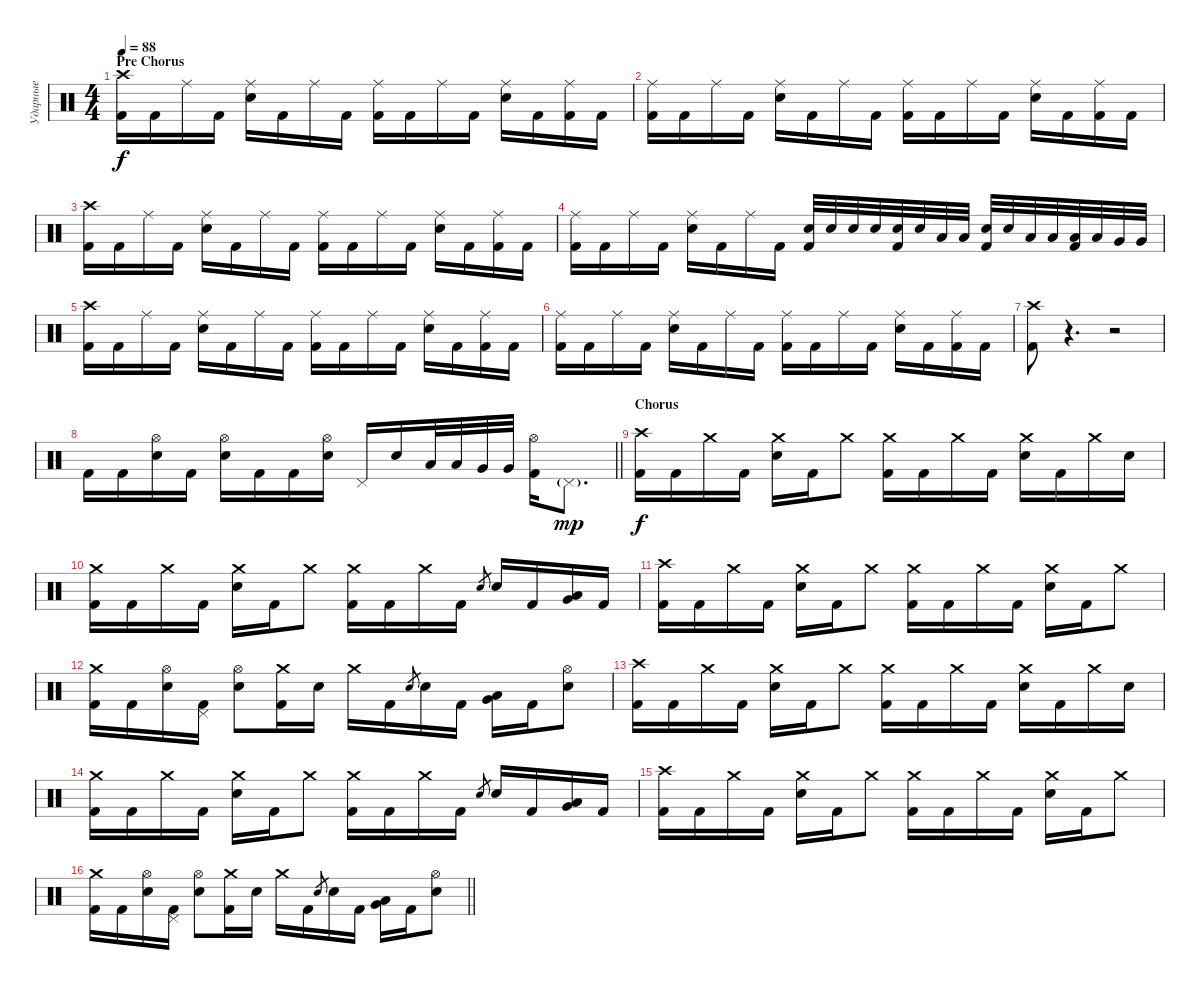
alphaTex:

\track ("Ударные" "Ударные") {instrument percussion}
\staff {score}
\articulation defaults
\ts (4 4)
\section ("" "Pre Chorus")
\tempo 88
\clef neutral
\ks c
("Crash high (hit)" "Kick (hit) 2").16{dy f} "Kick (hit) 2".16 "Ride (middle)".16 "Kick (hit) 2".16 ("Ride (middle)" "Electric Snare (hit)").16 "Kick (hit) 2".16 "Ride (middle)".16 "Kick (hit) 2".16 ("Ride (middle)" "Kick (hit) 2").16 "Kick (hit) 2".16 "Ride (middle)".16 "Kick (hit) 2".16 ("Ride (middle)" "Electric Snare (hit)").16 "Kick (hit) 2".16 ("Ride (middle)" "Kick (hit) 2").16 "Kick (hit) 2".16 |
("Ride (middle)" "Kick (hit) 2").16 "Kick (hit) 2".16 "Ride (middle)".16 "Kick (hit) 2".16 ("Ride (middle)" "Electric Snare (hit)").16 "Kick (hit) 2".16 "Ride (middle)".16 "Kick (hit) 2".16 ("Ride (middle)" "Kick (hit) 2").16 "Kick (hit) 2".16 "Ride (middle)".16 "Kick (hit) 2".16 ("Ride (middle)" "Electric Snare (hit)").16 "Kick (hit) 2".16 ("Ride (middle)" "Kick (hit) 2").16 "Kick (hit) 2".16 |
("Crash high (hit)" "Kick (hit) 2").16 "Kick (hit) 2".16 "Ride (middle)".16 "Kick (hit) 2".16 ("Ride (middle)" "Electric Snare (hit)").16 "Kick (hit) 2".16 "Ride (middle)".16 "Kick (hit) 2".16 ("Ride (middle)" "Kick (hit) 2").16 "Kick (hit) 2".16 "Ride (middle)".16 "Kick (hit) 2".16 ("Ride (middle)" "Electric Snare (hit)").16 "Kick (hit) 2".16 ("Ride (middle)" "Kick (hit) 2").16 "Kick (hit) 2".16 |
("Ride (middle)" "Kick (hit) 2").16 "Kick (hit) 2".16 "Ride (middle)".16 "Kick (hit) 2".16 ("Ride (middle)" "Electric Snare (hit)").16 "Kick (hit) 2".16 "Ride (middle)".16 "Kick (hit) 2".16 ("Electric Snare (hit)" "Kick (hit) 2").32 "Electric Snare (hit)".32 "Electric Snare (hit)".32 "Electric Snare (hit)".32 ("Electric Snare (hit)" "Kick (hit) 2").32 "Electric Snare (hit)".32 "Low Tom (hit)".32 "Low Tom (hit)".32 ("Electric Snare (hit)" "Kick (hit) 2").32 "Electric Snare (hit)".32 "Low Tom (hit)".32 "Low Tom (hit)".32 ("Low Tom (hit)" "Kick (hit) 2").32 "Low Tom (hit)".32 "Very Low Tom (hit)".32 "Very Low Tom (hit)".32 |
("Crash high (hit)" "Kick (hit) 2").16 "Kick (hit) 2".16 "Ride (middle)".16 "Kick (hit) 2".16 ("Ride (middle)" "Electric Snare (hit)").16 "Kick (hit) 2".16 "Ride (middle)".16 "Kick (hit) 2".16 ("Ride (middle)" "Kick (hit) 2").16 "Kick (hit) 2".16 "Ride (middle)".16 "Kick (hit) 2".16 ("Ride (middle)" "Electric Snare (hit)").16 "Kick (hit) 2".16 ("Ride (middle)" "Kick (hit) 2").16 "Kick (hit) 2".16 |
("Ride (middle)" "Kick (hit) 2").16 "Kick (hit) 2".16 "Ride (middle)".16 "Kick (hit) 2".16 ("Ride (middle)" "Electric Snare (hit)").16 "Kick (hit) 2".16 "Ride (middle)".16 "Kick (hit) 2".16 ("Ride (middle)" "Kick (hit) 2").16 "Kick (hit) 2".16 "Ride (middle)".16 "Kick (hit) 2".16 ("Ride (middle)" "Electric Snare (hit)").16 "Kick (hit) 2".16 ("Ride (middle)" "Kick (hit) 2").16 "Kick (hit) 2".16 |
("Crash high (hit)" "Kick (hit) 2").8 r.4{d volume 0} r.2 |
\barLineRight lightlight "Kick (hit) 2".16{volume 16} "Kick (hit) 2".16
("Hi-Hat (open)" "Electric Snare (hit)").16 "Kick (hit) 2".16 ("Hi-Hat (open)" "Electric Snare (hit)").16 "Kick (hit) 2".16 "Kick (hit) 2".16 ("Hi-Hat (open)" "Electric Snare (hit)").16 "Pedal Hi-Hat (hit)".16 "Electric Snare (hit)".16 "Low Tom (hit)".32 "Low Tom (hit)".32 "Very Low Tom (hit)".32 "Very Low Tom (hit)".32 ("Hi-Hat (open)" "Kick (hit) 2").16 "Pedal Hi-Hat (hit)"{g}.8{d dy mp} |
\section ("" "Chorus")
("Crash high (hit)" "Kick (hit) 2").16{dy f} "Kick (hit) 2".16 "Crash medium (hit)".16 "Kick (hit) 2".16 ("Crash medium (hit)" "Electric Snare (hit)").16 "Kick (hit) 2".16 "Crash medium (hit)".8 ("Crash medium (hit)" "Kick (hit) 2").16 "Kick (hit) 2".16 "Crash medium (hit)".16 "Kick (hit) 2".16 ("Crash medium (hit)" "Electric Snare (hit)").16 "Kick (hit) 2".16 "Crash medium (hit)".16 "Electric Snare (hit)".16 |
("Crash medium (hit)" "Kick (hit) 2").16 "Kick (hit) 2".16 "Crash medium (hit)".16 "Kick (hit) 2".16 ("Crash medium (hit)" "Electric Snare (hit)").16 "Kick (hit) 2".16 "Crash medium (hit)".8 ("Crash medium (hit)" "Kick (hit) 2").16 "Kick (hit) 2".16 "Crash medium (hit)".16 "Kick (hit) 2".16 "Electric Snare (hit)".8{gr} "Electric Snare (hit)".16 "Kick (hit) 2".16 ("Low Tom (hit)" "Very Low Tom (hit)").16 "Kick (hit) 2".16 |
("Crash high (hit)" "Kick (hit) 2").16 "Kick (hit) 2".16 "Crash medium (hit)".16 "Kick (hit) 2".16 ("Crash medium (hit)" "Electric Snare (hit)").16 "Kick (hit) 2".16 "Crash medium (hit)".8 ("Crash medium (hit)" "Kick (hit) 2").16 "Kick (hit) 2".16 "Crash medium (hit)".16 "Kick (hit) 2".16 ("Crash medium (hit)" "Electric Snare (hit)").16 "Kick (hit) 2".16 "Crash medium (hit)".8 |
("Crash medium (hit)" "Kick (hit) 2").16 "Kick (hit) 2".16 ("Hi-Hat (open)" "Electric Snare (hit)").16 ("Pedal Hi-Hat (hit)" "Kick (hit) 2").16 ("Hi-Hat (open)" "Electric Snare (hit)").8 ("Crash medium (hit)" "Kick (hit) 2").16 "Electric Snare (hit)".16 "Crash medium (hit)".16 "Kick (hit) 2".16 "Electric Snare (hit)".8{gr} "Electric Snare (hit)".16 "Kick (hit) 2".16 ("Low Tom (hit)" "Very Low Tom (hit)").16 "Kick (hit) 2".16 ("Hi-Hat (open)" "Electric Snare (hit)").8 |
("Crash high (hit)" "Kick (hit) 2").16 "Kick (hit) 2".16 "Crash medium (hit)".16 "Kick (hit) 2".16 ("Crash medium (hit)" "Electric Snare (hit)").16 "Kick (hit) 2".16 "Crash medium (hit)".8 ("Crash medium (hit)" "Kick (hit) 2").16 "Kick (hit) 2".16 "Crash medium (hit)".16 "Kick (hit) 2".16 ("Crash medium (hit)" "Electric Snare (hit)").16 "Kick (hit) 2".16 "Crash medium (hit)".16 "Electric Snare (hit)".16 |
("Crash medium (hit)" "Kick (hit) 2").16 "Kick (hit) 2".16 "Crash medium (hit)".16 "Kick (hit) 2".16 ("Crash medium (hit)" "Electric Snare (hit)").16 "Kick (hit) 2".16 "Crash medium (hit)".8 ("Crash medium (hit)" "Kick (hit) 2").16 "Kick (hit) 2".16 "Crash medium (hit)".16 "Kick (hit) 2".16 "Electric Snare (hit)".8{gr} "Electric Snare (hit)".16 "Kick (hit) 2".16 ("Low Tom (hit)" "Very Low Tom (hit)").16 "Kick (hit) 2".16 |
("Crash high (hit)" "Kick (hit) 2").16 "Kick (hit) 2".16 "Crash medium (hit)".16 "Kick (hit) 2".16 ("Crash medium (hit)" "Electric Snare (hit)").16 "Kick (hit) 2".16 "Crash medium (hit)".8 ("Crash medium (hit)" "Kick (hit) 2").16 "Kick (hit) 2".16 "Crash medium (hit)".16 "Kick (hit) 2".16 ("Crash medium (hit)" "Electric Snare (hit)").16 "Kick (hit) 2".16 "Crash medium (hit)".8 |
\barLineRight lightlight
("Crash medium (hit)" "Kick (hit) 2").16 "Kick (hit) 2".16 ("Hi-Hat (open)" "Electric Snare (hit)").16 ("Pedal Hi-Hat (hit)" "Kick (hit) 2").16 ("Hi-Hat (open)" "Electric Snare (hit)").8 ("Crash medium (hit)" "Kick (hit) 2").16 "Electric Snare (hit)".16 "Crash medium (hit)".16 "Kick (hit) 2".16 "Electric Snare (hit)".8{gr} "Electric Snare (hit)".16 "Kick (hit) 2".16 ("Low Tom (hit)" "Very Low Tom (hit)").16 "Kick (hit) 2".16 ("Hi-Hat (open)" "Electric Snare (hit)").8
